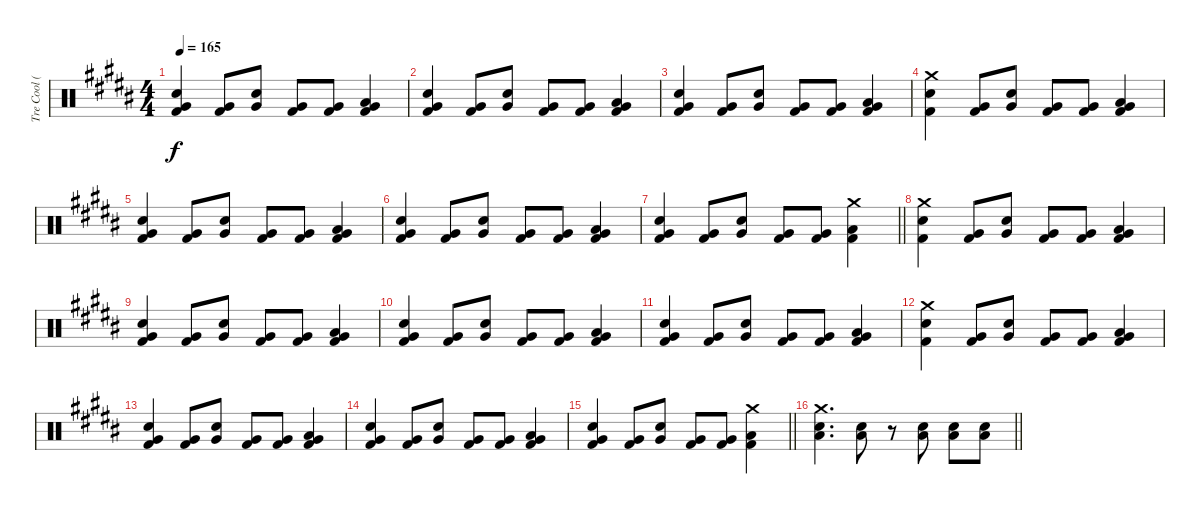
\track ("Tre Cool (Drums)" "Tre Cool (") {instrument percussion}
\staff {score}
\articulation defaults
\ts (4 4)
\tempo 165
\clef neutral
\ks b
("Very Low Tom (hit)" "Electric Snare (hit)" "Kick (hit) 2").4{dy f} ("Very Low Tom (hit)" "Kick (hit) 2").8 ("Very Low Tom (hit)" "Electric Snare (hit)").8 ("Very Low Tom (hit)" "Kick (hit) 2").8 ("Very Low Tom (hit)" "Kick (hit) 2").8 ("Very Low Tom (hit)" "Low Tom (hit)" "Kick (hit) 2").4 |
("Very Low Tom (hit)" "Electric Snare (hit)" "Kick (hit) 2").4 ("Very Low Tom (hit)" "Kick (hit) 2").8 ("Very Low Tom (hit)" "Electric Snare (hit)").8 ("Very Low Tom (hit)" "Kick (hit) 2").8 ("Very Low Tom (hit)" "Kick (hit) 2").8 ("Very Low Tom (hit)" "Low Tom (hit)" "Kick (hit) 2").4 |
("Very Low Tom (hit)" "Electric Snare (hit)" "Kick (hit) 2").4 ("Very Low Tom (hit)" "Kick (hit) 2").8 ("Very Low Tom (hit)" "Electric Snare (hit)").8 ("Very Low Tom (hit)" "Kick (hit) 2").8 ("Very Low Tom (hit)" "Kick (hit) 2").8 ("Very Low Tom (hit)" "Low Tom (hit)" "Kick (hit) 2").4 |
("Crash medium (hit)" "Electric Snare (hit)" "Kick (hit) 2").4 ("Very Low Tom (hit)" "Kick (hit) 2").8 ("Very Low Tom (hit)" "Electric Snare (hit)").8 ("Very Low Tom (hit)" "Kick (hit) 2").8 ("Very Low Tom (hit)" "Kick (hit) 2").8 ("Very Low Tom (hit)" "Low Tom (hit)" "Kick (hit) 2").4 |
("Very Low Tom (hit)" "Electric Snare (hit)" "Kick (hit) 2").4 ("Very Low Tom (hit)" "Kick (hit) 2").8 ("Very Low Tom (hit)" "Electric Snare (hit)").8 ("Very Low Tom (hit)" "Kick (hit) 2").8 ("Very Low Tom (hit)" "Kick (hit) 2").8 ("Very Low Tom (hit)" "Low Tom (hit)" "Kick (hit) 2").4 |
("Very Low Tom (hit)" "Electric Snare (hit)" "Kick (hit) 2").4 ("Very Low Tom (hit)" "Kick (hit) 2").8 ("Very Low Tom (hit)" "Electric Snare (hit)").8 ("Very Low Tom (hit)" "Kick (hit) 2").8 ("Very Low Tom (hit)" "Kick (hit) 2").8 ("Very Low Tom (hit)" "Low Tom (hit)" "Kick (hit) 2").4 |
\barLineRight lightlight
("Very Low Tom (hit)" "Electric Snare (hit)" "Kick (hit) 2").4 ("Very Low Tom (hit)" "Kick (hit) 2").8 ("Very Low Tom (hit)" "Electric Snare (hit)").8 ("Very Low Tom (hit)" "Kick (hit) 2").8 ("Very Low Tom (hit)" "Kick (hit) 2").8 ("Crash medium (hit)" "Low Tom (hit)" "Kick (hit) 2").4 |
("Crash medium (hit)" "Electric Snare (hit)" "Kick (hit) 2").4 ("Very Low Tom (hit)" "Kick (hit) 2").8 ("Very Low Tom (hit)" "Electric Snare (hit)").8 ("Very Low Tom (hit)" "Kick (hit) 2").8 ("Very Low Tom (hit)" "Kick (hit) 2").8 ("Very Low Tom (hit)" "Low Tom (hit)" "Kick (hit) 2").4 |
("Very Low Tom (hit)" "Electric Snare (hit)" "Kick (hit) 2").4 ("Very Low Tom (hit)" "Kick (hit) 2").8 ("Very Low Tom (hit)" "Electric Snare (hit)").8 ("Very Low Tom (hit)" "Kick (hit) 2").8 ("Very Low Tom (hit)" "Kick (hit) 2").8 ("Very Low Tom (hit)" "Low Tom (hit)" "Kick (hit) 2").4 |
("Very Low Tom (hit)" "Electric Snare (hit)" "Kick (hit) 2").4 ("Very Low Tom (hit)" "Kick (hit) 2").8 ("Very Low Tom (hit)" "Electric Snare (hit)").8 ("Very Low Tom (hit)" "Kick (hit) 2").8 ("Very Low Tom (hit)" "Kick (hit) 2").8 ("Very Low Tom (hit)" "Low Tom (hit)" "Kick (hit) 2").4 |
("Very Low Tom (hit)" "Electric Snare (hit)" "Kick (hit) 2").4 ("Very Low Tom (hit)" "Kick (hit) 2").8 ("Very Low Tom (hit)" "Electric Snare (hit)").8 ("Very Low Tom (hit)" "Kick (hit) 2").8 ("Very Low Tom (hit)" "Kick (hit) 2").8 ("Very Low Tom (hit)" "Low Tom (hit)" "Kick (hit) 2").4 |
("Crash medium (hit)" "Electric Snare (hit)" "Kick (hit) 2").4 ("Very Low Tom (hit)" "Kick (hit) 2").8 ("Very Low Tom (hit)" "Electric Snare (hit)").8 ("Very Low Tom (hit)" "Kick (hit) 2").8 ("Very Low Tom (hit)" "Kick (hit) 2").8 ("Very Low Tom (hit)" "Low Tom (hit)" "Kick (hit) 2").4 |
("Very Low Tom (hit)" "Electric Snare (hit)" "Kick (hit) 2").4 ("Very Low Tom (hit)" "Kick (hit) 2").8 ("Very Low Tom (hit)" "Electric Snare (hit)").8 ("Very Low Tom (hit)" "Kick (hit) 2").8 ("Very Low Tom (hit)" "Kick (hit) 2").8 ("Very Low Tom (hit)" "Low Tom (hit)" "Kick (hit) 2").4 |
("Very Low Tom (hit)" "Electric Snare (hit)" "Kick (hit) 2").4 ("Very Low Tom (hit)" "Kick (hit) 2").8 ("Very Low Tom (hit)" "Electric Snare (hit)").8 ("Very Low Tom (hit)" "Kick (hit) 2").8 ("Very Low Tom (hit)" "Kick (hit) 2").8 ("Very Low Tom (hit)" "Low Tom (hit)" "Kick (hit) 2").4 |
\barLineRight lightlight
("Very Low Tom (hit)" "Electric Snare (hit)" "Kick (hit) 2").4 ("Very Low Tom (hit)" "Kick (hit) 2").8 ("Very Low Tom (hit)" "Electric Snare (hit)").8 ("Very Low Tom (hit)" "Kick (hit) 2").8 ("Very Low Tom (hit)" "Kick (hit) 2").8 ("Crash medium (hit)" "Low Tom (hit)" "Kick (hit) 2").4 |
\barLineRight lightlight
("Crash medium (hit)" "Low Tom (hit)" "Electric Snare (hit)").4{d} ("Low Tom (hit)" "Electric Snare (hit)").8 r.8 ("Low Tom (hit)" "Electric Snare (hit)").8 ("Low Tom (hit)" "Electric Snare (hit)").8 ("Low Tom (hit)" "Electric Snare (hit)").8
